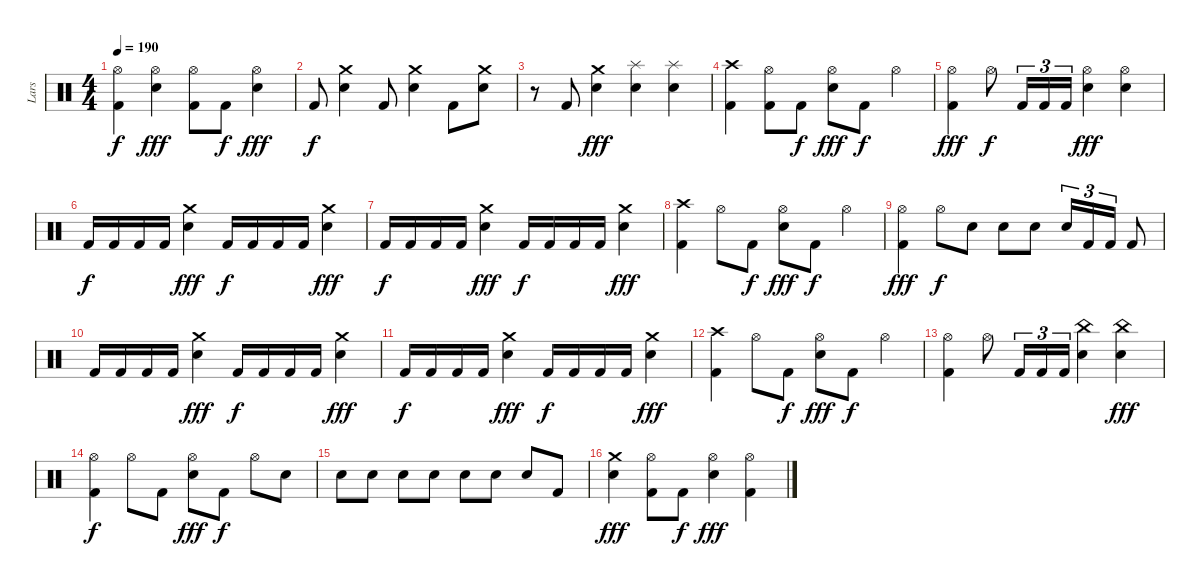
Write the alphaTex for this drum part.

\track ("Lars" "Lars") {instrument percussion}
\staff {score}
\articulation defaults
\ts (4 4)
\tempo 190
\clef neutral
\ks c
("Hi-Hat (open)" "Kick (hit) 2").4{dy f} ("Hi-Hat (open)" "Snare (hit) 2").4{dy fff} ("Hi-Hat (open)" "Kick (hit) 2").8 "Kick (hit) 2".8{dy f} ("Hi-Hat (open)" "Snare (hit) 2").4{dy fff} |
"Kick (hit) 2".8{dy f} ("Crash medium (hit)" "Snare (hit) 2").4 "Kick (hit) 2".8 ("Crash medium (hit)" "Snare (hit) 2").4 "Kick (hit) 2".8 ("Crash medium (hit)" "Snare (hit) 2").8 |
r.8 "Kick (hit) 2".8 ("Crash medium (hit)" "Snare (hit) 2").4{dy fff} ("Splash (hit)" "Snare (hit) 2").4 ("Splash (hit)" "Snare (hit) 2").4 |
("Crash high (hit)" "Kick (hit) 2").4 ("Hi-Hat (open)" "Kick (hit) 2").8 "Kick (hit) 2".8{dy f} ("Hi-Hat (open)" "Snare (hit) 2").8{dy fff} "Kick (hit) 2".8{dy f} "Hi-Hat (open)".4 |
("Hi-Hat (open)" "Kick (hit) 2").4{dy fff} "Hi-Hat (open)".8{dy f} "Kick (hit) 2".16{tu (3 2)} "Kick (hit) 2".16{tu (3 2)} "Kick (hit) 2".16{tu (3 2)} ("Hi-Hat (open)" "Snare (hit) 2").4{dy fff} ("Hi-Hat (open)" "Snare (hit) 2").4 |
"Kick (hit) 2".16{dy f} "Kick (hit) 2".16 "Kick (hit) 2".16 "Kick (hit) 2".16 ("Crash medium (hit)" "Snare (hit) 2").4{dy fff} "Kick (hit) 2".16{dy f} "Kick (hit) 2".16 "Kick (hit) 2".16 "Kick (hit) 2".16 ("Crash medium (hit)" "Snare (hit) 2").4{dy fff} |
"Kick (hit) 2".16{dy f} "Kick (hit) 2".16 "Kick (hit) 2".16 "Kick (hit) 2".16 ("Crash medium (hit)" "Snare (hit) 2").4{dy fff} "Kick (hit) 2".16{dy f} "Kick (hit) 2".16 "Kick (hit) 2".16 "Kick (hit) 2".16 ("Crash medium (hit)" "Snare (hit) 2").4{dy fff} |
("Crash high (hit)" "Kick (hit) 2").4 "Hi-Hat (open)".8 "Kick (hit) 2".8{dy f} ("Hi-Hat (open)" "Snare (hit) 2").8{dy fff} "Kick (hit) 2".8{dy f} "Hi-Hat (open)".4 |
("Hi-Hat (open)" "Kick (hit) 2").4{dy fff} "Hi-Hat (open)".8{dy f} "Snare (hit) 2".8 "Snare (hit) 2".8 "Snare (hit) 2".8 "Snare (hit) 2".16{tu (3 2)} "Kick (hit) 2".16{tu (3 2)} "Kick (hit) 2".16{tu (3 2)} "Kick (hit) 2".8 |
"Kick (hit) 2".16 "Kick (hit) 2".16 "Kick (hit) 2".16 "Kick (hit) 2".16 ("Crash medium (hit)" "Snare (hit) 2").4{dy fff} "Kick (hit) 2".16{dy f} "Kick (hit) 2".16 "Kick (hit) 2".16 "Kick (hit) 2".16 ("Crash medium (hit)" "Snare (hit) 2").4{dy fff} |
"Kick (hit) 2".16{dy f} "Kick (hit) 2".16 "Kick (hit) 2".16 "Kick (hit) 2".16 ("Crash medium (hit)" "Snare (hit) 2").4{dy fff} "Kick (hit) 2".16{dy f} "Kick (hit) 2".16 "Kick (hit) 2".16 "Kick (hit) 2".16 ("Crash medium (hit)" "Snare (hit) 2").4{dy fff} |
("Crash high (hit)" "Kick (hit) 2").4 "Hi-Hat (open)".8 "Kick (hit) 2".8{dy f} ("Hi-Hat (open)" "Snare (hit) 2").8{dy fff} "Kick (hit) 2".8{dy f} "Hi-Hat (open)".4 |
("Hi-Hat (open)" "Kick (hit) 2").4 "Hi-Hat (open)".8 "Kick (hit) 2".16{tu (3 2)} "Kick (hit) 2".16{tu (3 2)} "Kick (hit) 2".16{tu (3 2)} ("China (hit)" "Snare (hit) 2").4 ("China (hit)" "Snare (hit) 2").4{dy fff} |
("Hi-Hat (open)" "Kick (hit) 2").4{dy f} "Hi-Hat (open)".8 "Kick (hit) 2".8 ("Hi-Hat (open)" "Snare (hit) 2").8{dy fff} "Kick (hit) 2".8{dy f} "Hi-Hat (open)".8 "Snare (hit) 2".8 |
"Snare (hit) 2".8 "Snare (hit) 2".8 "Snare (hit) 2".8 "Snare (hit) 2".8 "Snare (hit) 2".8 "Snare (hit) 2".8 "Snare (hit) 2".8 "Kick (hit) 2".8 |
("Crash medium (hit)" "Snare (hit) 2").4{dy fff} ("Hi-Hat (open)" "Kick (hit) 2").8 "Kick (hit) 2".8{dy f} ("Hi-Hat (open)" "Snare (hit) 2").4{dy fff} ("Hi-Hat (open)" "Kick (hit) 2").4
